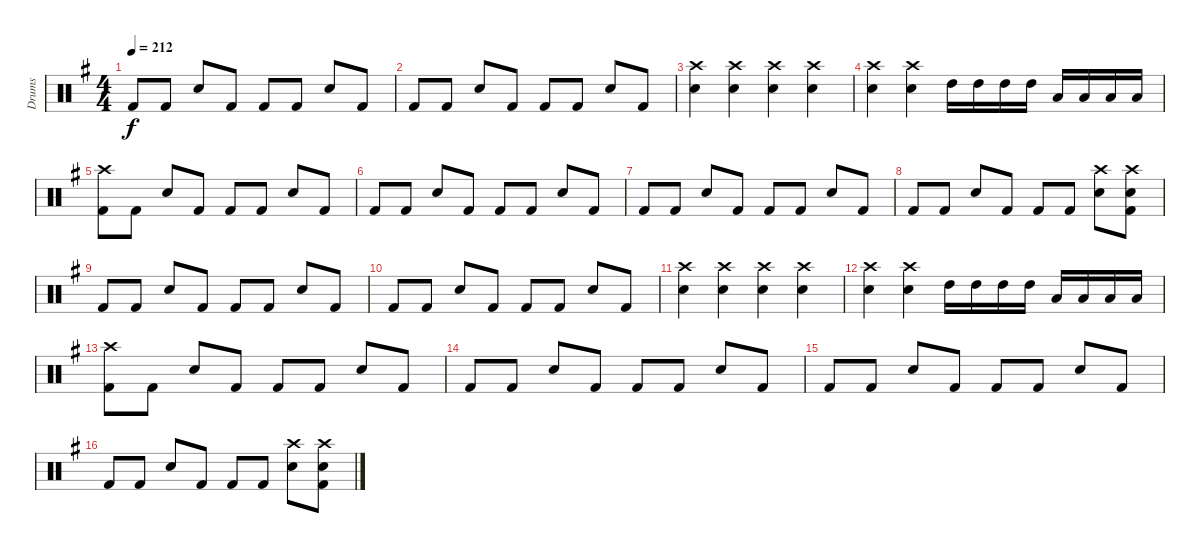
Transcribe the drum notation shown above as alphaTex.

\track ("Drums" "Drums") {instrument percussion}
\staff {score}
\articulation defaults
\ts (4 4)
\tempo 212
\clef neutral
\ks eminor "Kick (hit) 2".8{dy f} "Kick (hit) 2".8 "Snare (hit) 2".8 "Kick (hit) 2".8 "Kick (hit) 2".8 "Kick (hit) 2".8 "Snare (hit) 2".8 "Kick (hit) 2".8
|
"Kick (hit) 2".8 "Kick (hit) 2".8 "Snare (hit) 2".8 "Kick (hit) 2".8 "Kick (hit) 2".8 "Kick (hit) 2".8 "Snare (hit) 2".8 "Kick (hit) 2".8 |
("Crash high (hit)" "Snare (hit) 2").4 ("Crash high (hit)" "Snare (hit) 2").4 ("Crash high (hit)" "Snare (hit) 2").4 ("Crash high (hit)" "Snare (hit) 2").4 |
("Crash high (hit)" "Snare (hit) 2").4 ("Crash high (hit)" "Snare (hit) 2").4 "High Tom (hit)".16 "High Tom (hit)".16 "High Tom (hit)".16 "High Tom (hit)".16 "Low Tom (hit)".16 "Low Tom (hit)".16 "Low Tom (hit)".16 "Low Tom (hit)".16 |
("Crash high (hit)" "Kick (hit) 2").8 "Kick (hit) 2".8 "Snare (hit) 2".8 "Kick (hit) 2".8 "Kick (hit) 2".8 "Kick (hit) 2".8 "Snare (hit) 2".8 "Kick (hit) 2".8 |
"Kick (hit) 2".8 "Kick (hit) 2".8 "Snare (hit) 2".8 "Kick (hit) 2".8 "Kick (hit) 2".8 "Kick (hit) 2".8 "Snare (hit) 2".8 "Kick (hit) 2".8 |
"Kick (hit) 2".8 "Kick (hit) 2".8 "Snare (hit) 2".8 "Kick (hit) 2".8 "Kick (hit) 2".8 "Kick (hit) 2".8 "Snare (hit) 2".8 "Kick (hit) 2".8 |
"Kick (hit) 2".8 "Kick (hit) 2".8 "Snare (hit) 2".8 "Kick (hit) 2".8 "Kick (hit) 2".8 "Kick (hit) 2".8 ("Crash high (hit)" "Snare (hit) 2").8 ("Crash high (hit)" "Snare (hit) 2" "Kick (hit) 2").8 |
"Kick (hit) 2".8 "Kick (hit) 2".8 "Snare (hit) 2".8 "Kick (hit) 2".8 "Kick (hit) 2".8 "Kick (hit) 2".8 "Snare (hit) 2".8 "Kick (hit) 2".8 |
"Kick (hit) 2".8 "Kick (hit) 2".8 "Snare (hit) 2".8 "Kick (hit) 2".8 "Kick (hit) 2".8 "Kick (hit) 2".8 "Snare (hit) 2".8 "Kick (hit) 2".8 |
("Crash high (hit)" "Snare (hit) 2").4 ("Crash high (hit)" "Snare (hit) 2").4 ("Crash high (hit)" "Snare (hit) 2").4 ("Crash high (hit)" "Snare (hit) 2").4 |
("Crash high (hit)" "Snare (hit) 2").4 ("Crash high (hit)" "Snare (hit) 2").4 "High Tom (hit)".16 "High Tom (hit)".16 "High Tom (hit)".16 "High Tom (hit)".16 "Low Tom (hit)".16 "Low Tom (hit)".16 "Low Tom (hit)".16 "Low Tom (hit)".16 |
("Crash high (hit)" "Kick (hit) 2").8 "Kick (hit) 2".8 "Snare (hit) 2".8 "Kick (hit) 2".8 "Kick (hit) 2".8 "Kick (hit) 2".8 "Snare (hit) 2".8 "Kick (hit) 2".8 |
"Kick (hit) 2".8 "Kick (hit) 2".8 "Snare (hit) 2".8 "Kick (hit) 2".8 "Kick (hit) 2".8 "Kick (hit) 2".8 "Snare (hit) 2".8 "Kick (hit) 2".8 |
"Kick (hit) 2".8 "Kick (hit) 2".8 "Snare (hit) 2".8 "Kick (hit) 2".8 "Kick (hit) 2".8 "Kick (hit) 2".8 "Snare (hit) 2".8 "Kick (hit) 2".8 |
"Kick (hit) 2".8 "Kick (hit) 2".8 "Snare (hit) 2".8 "Kick (hit) 2".8 "Kick (hit) 2".8 "Kick (hit) 2".8 ("Crash high (hit)" "Snare (hit) 2").8 ("Crash high (hit)" "Snare (hit) 2" "Kick (hit) 2").8
